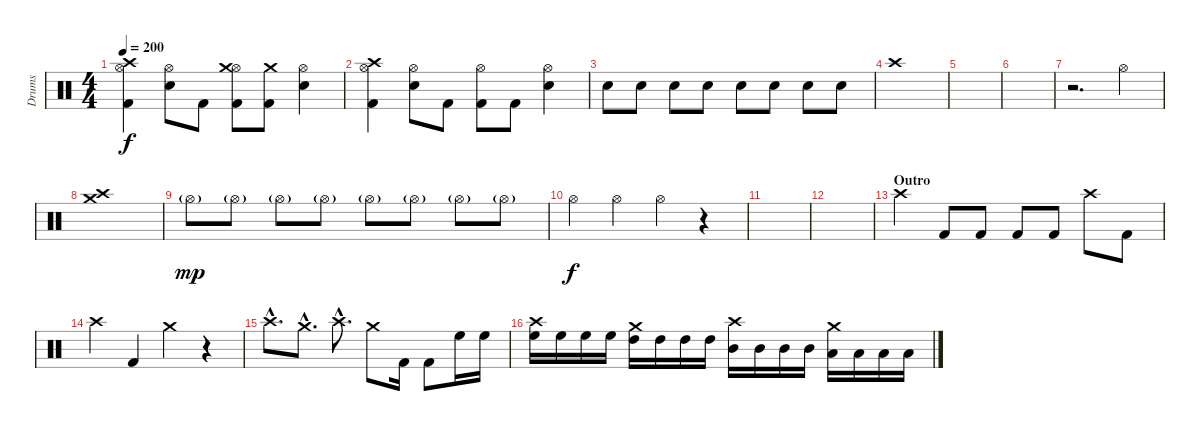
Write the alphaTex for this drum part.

\track ("Drums" "Drums") {instrument percussion}
\staff {score}
\articulation defaults
\ts (4 4)
\tempo 200
\clef neutral
\ks c
("Hi-Hat (open)" "Crash high (hit)" "Kick (hit) 2").4{dy f} ("Hi-Hat (open)" "Snare (hit) 2").8 "Kick (hit) 2".8 ("Hi-Hat (open)" "Crash medium (hit)" "Kick (hit) 2").8 ("Crash medium (hit)" "Kick (hit) 2").8 ("Hi-Hat (open)" "Snare (hit) 2").4 |
("Hi-Hat (open)" "Crash high (hit)" "Kick (hit) 2").4 ("Hi-Hat (open)" "Snare (hit) 2").8 "Kick (hit) 2".8 ("Hi-Hat (open)" "Kick (hit) 2").8 "Kick (hit) 2".8 ("Hi-Hat (open)" "Snare (hit) 2").4 |
"Snare (hit) 2".8 "Snare (hit) 2".8 "Snare (hit) 2".8 "Snare (hit) 2".8 "Snare (hit) 2".8 "Snare (hit) 2".8 "Snare (hit) 2".8 "Snare (hit) 2".8 |
"Crash high (hit)".1 |
|
|
r.2{d} "Hi-Hat (open)".4 |
("Crash medium (hit)" "Crash high (hit)").1 |
"Hi-Hat (open)"{g}.8{dy mp} "Hi-Hat (open)"{g}.8 "Hi-Hat (open)"{g}.8 "Hi-Hat (open)"{g}.8 "Hi-Hat (open)"{g}.8 "Hi-Hat (open)"{g}.8 "Hi-Hat (open)"{g}.8 "Hi-Hat (open)"{g}.8 |
"Hi-Hat (open)".4{dy f} "Hi-Hat (open)".4 "Hi-Hat (open)".4 r.4 |
|
|
\section ("" "Outro")
"Crash high (hit)".4 "Kick (hit) 2".8 "Kick (hit) 2".8 "Kick (hit) 2".8 "Kick (hit) 2".8 "Crash high (hit)".8 "Kick (hit) 2".8 |
"Crash high (hit)".4 "Kick (hit) 2".4 "Crash medium (hit)".4 r.4 |
"Crash high (hit)"{hac}.8{d} "Crash medium (hit)"{hac}.8{d} "Crash high (hit)"{hac}.8{d} "Crash medium (hit)".8 "Kick (hit) 2".16 "Kick (hit) 2".8 "High Floor Tom (hit)".16 "High Floor Tom (hit)".16 |
("Crash high (hit)" "High Floor Tom (hit)").16 "High Floor Tom (hit)".16 "High Floor Tom (hit)".16 "High Floor Tom (hit)".16 ("Crash medium (hit)" "High Tom (hit)").16 "High Tom (hit)".16 "High Tom (hit)".16 "High Tom (hit)".16 ("Crash high (hit)" "Mid Tom (hit)").16 "Mid Tom (hit)".16 "Mid Tom (hit)".16 "Mid Tom (hit)".16 ("Crash medium (hit)" "Low Tom (hit)").16 "Low Tom (hit)".16 "Low Tom (hit)".16 "Low Tom (hit)".16
